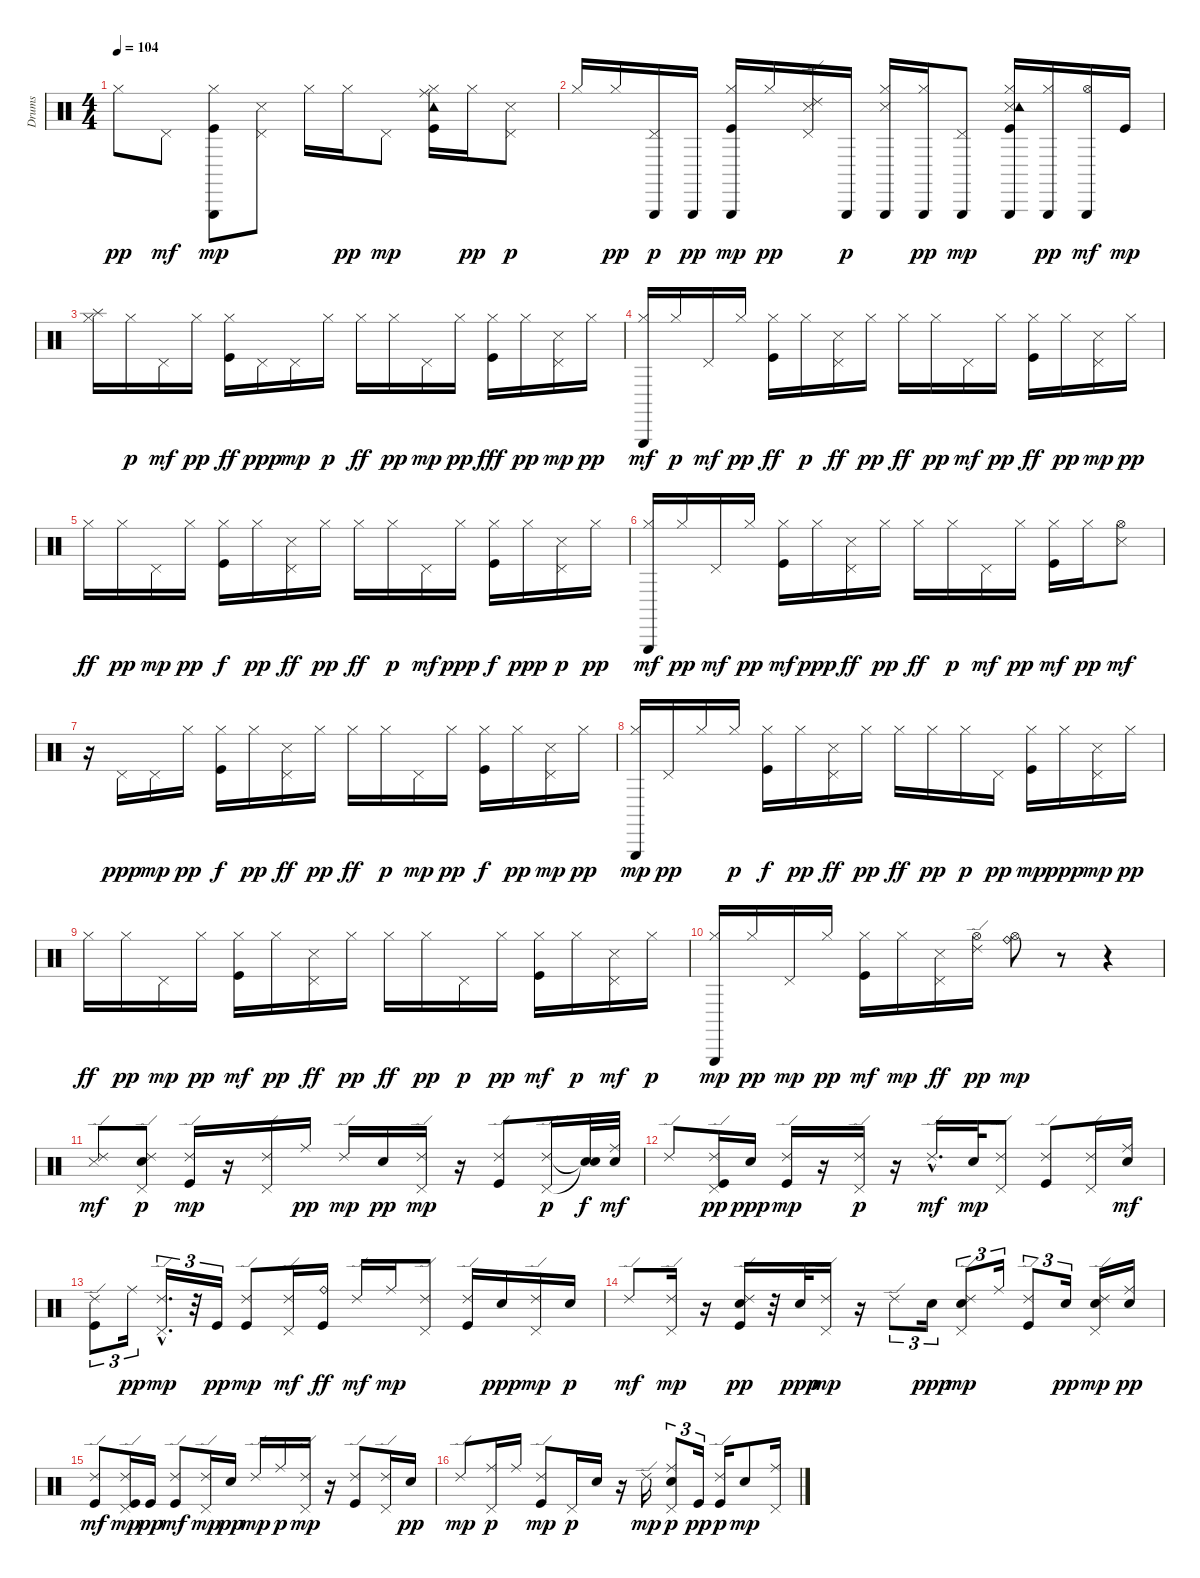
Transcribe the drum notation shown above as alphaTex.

\track ("Drums" "Drums") {instrument percussion}
\staff {score}
\articulation defaults
\ts (4 4)
\tempo 104
\clef neutral
\ks c "Hi-Hat (closed)".8{dy pp} "Pedal Hi-Hat (hit)".8{dy mf}
("Hi-Hat (closed)" "Triangle (hit)" "Kick (hit)").8{dy mp} ("Pedal Hi-Hat (hit)" "Snare (side stick) 3").8 "Hi-Hat (closed)".16 "Hi-Hat (closed)".16{dy pp} "Pedal Hi-Hat (hit)".8{dy mp} ("Hi-Hat (closed)" "Ride (middle)" "Tambourine (hit)" "Kick (hit)").16 "Hi-Hat (closed)".16{dy pp} ("Pedal Hi-Hat (hit)" "Snare (side stick) 3").8{dy p} |
"Hi-Hat (closed)".16 "Hi-Hat (closed)".16{dy pp} ("Pedal Hi-Hat (hit)" "Triangle (hit)").16{dy p} "Triangle (hit)".16{dy pp} ("Hi-Hat (closed)" "Triangle (hit)" "Kick (hit)").16{dy mp} "Hi-Hat (closed)".16{dy pp} ("Pedal Hi-Hat (hit)" "Ride (edge) 2" "Snare (side stick) 3").16 "Triangle (hit)".16{dy p} ("Hi-Hat (closed)" "Snare (side stick) 3" "Triangle (hit)").16 ("Hi-Hat (closed)" "Triangle (hit)").16{dy pp} ("Pedal Hi-Hat (hit)" "Triangle (hit)").8{dy mp} ("Hi-Hat (closed)" "Snare (side stick) 3" "Tambourine (hit)" "Triangle (hit)" "Kick (hit)").16 ("Hi-Hat (closed)" "Triangle (hit)").16{dy pp} ("Hi-Hat (open)" "Triangle (hit)").16{dy mf} "Kick (hit)".16{dy mp} |
("Hi-Hat (closed)" "Splash (hit)").16 "Hi-Hat (closed)".16{dy p} "Pedal Hi-Hat (hit)".16{dy mf} "Hi-Hat (closed)".16{dy pp} ("Hi-Hat (closed)" "Kick (hit)").16{dy ff} "Pedal Hi-Hat (hit)".16{dy ppp} "Pedal Hi-Hat (hit)".16{dy mp} "Hi-Hat (closed)".16{dy p} "Hi-Hat (closed)".16{dy ff} "Hi-Hat (closed)".16{dy pp} "Pedal Hi-Hat (hit)".16{dy mp} "Hi-Hat (closed)".16{dy pp} ("Hi-Hat (closed)" "Kick (hit)").16{dy fff} "Hi-Hat (closed)".16{dy pp} ("Pedal Hi-Hat (hit)" "Snare (side stick) 3").16{dy mp} "Hi-Hat (closed)".16{dy pp} |
("Hi-Hat (closed)" "Triangle (hit)").16{dy mf} "Hi-Hat (closed)".16{dy p} "Pedal Hi-Hat (hit)".16{dy mf} "Hi-Hat (closed)".16{dy pp} ("Hi-Hat (closed)" "Kick (hit)").16{dy ff} "Hi-Hat (closed)".16{dy p} ("Pedal Hi-Hat (hit)" "Snare (side stick) 3").16{dy ff} "Hi-Hat (closed)".16{dy pp} "Hi-Hat (closed)".16{dy ff} "Hi-Hat (closed)".16{dy pp} "Pedal Hi-Hat (hit)".16{dy mf} "Hi-Hat (closed)".16{dy pp} ("Hi-Hat (closed)" "Kick (hit)").16{dy ff} "Hi-Hat (closed)".16{dy pp} ("Pedal Hi-Hat (hit)" "Snare (side stick) 3").16{dy mp} "Hi-Hat (closed)".16{dy pp} |
"Hi-Hat (closed)".16{dy ff} "Hi-Hat (closed)".16{dy pp} "Pedal Hi-Hat (hit)".16{dy mp} "Hi-Hat (closed)".16{dy pp} ("Hi-Hat (closed)" "Kick (hit)").16{dy f} "Hi-Hat (closed)".16{dy pp} ("Pedal Hi-Hat (hit)" "Snare (side stick) 3").16{dy ff} "Hi-Hat (closed)".16{dy pp} "Hi-Hat (closed)".16{dy ff} "Hi-Hat (closed)".16{dy p} "Pedal Hi-Hat (hit)".16{dy mf} "Hi-Hat (closed)".16{dy ppp} ("Hi-Hat (closed)" "Kick (hit)").16{dy f} "Hi-Hat (closed)".16{dy ppp} ("Pedal Hi-Hat (hit)" "Snare (side stick) 3").16{dy p} "Hi-Hat (closed)".16{dy pp} |
("Hi-Hat (closed)" "Triangle (hit)").16{dy mf} "Hi-Hat (closed)".16{dy pp} "Pedal Hi-Hat (hit)".16{dy mf} "Hi-Hat (closed)".16{dy pp} ("Hi-Hat (closed)" "Kick (hit)").16{dy mf} "Hi-Hat (closed)".16{dy ppp} ("Pedal Hi-Hat (hit)" "Snare (side stick) 3").16{dy ff} "Hi-Hat (closed)".16{dy pp} "Hi-Hat (closed)".16{dy ff} "Hi-Hat (closed)".16{dy p} "Pedal Hi-Hat (hit)".16{dy mf} "Hi-Hat (closed)".16{dy pp} ("Hi-Hat (closed)" "Kick (hit)").16{dy mf} "Hi-Hat (closed)".16{dy pp} ("Hi-Hat (open)" "Snare (side stick) 3").8{dy mf} |
r.16 "Pedal Hi-Hat (hit)".16{dy ppp} "Pedal Hi-Hat (hit)".16{dy mp} "Hi-Hat (closed)".16{dy pp} ("Hi-Hat (closed)" "Kick (hit)").16{dy f} "Hi-Hat (closed)".16{dy pp} ("Pedal Hi-Hat (hit)" "Snare (side stick) 3").16{dy ff} "Hi-Hat (closed)".16{dy pp} "Hi-Hat (closed)".16{dy ff} "Hi-Hat (closed)".16{dy p} "Pedal Hi-Hat (hit)".16{dy mp} "Hi-Hat (closed)".16{dy pp} ("Hi-Hat (closed)" "Kick (hit)").16{dy f} "Hi-Hat (closed)".16{dy pp} ("Pedal Hi-Hat (hit)" "Snare (side stick) 3").16{dy mp} "Hi-Hat (closed)".16{dy pp} |
("Hi-Hat (closed)" "Triangle (hit)").16{dy mp} "Pedal Hi-Hat (hit)".16{dy pp} "Hi-Hat (closed)".16 "Hi-Hat (closed)".16{dy p} ("Hi-Hat (closed)" "Kick (hit)").16{dy f} "Hi-Hat (closed)".16{dy pp} ("Pedal Hi-Hat (hit)" "Snare (side stick) 3").16{dy ff} "Hi-Hat (closed)".16{dy pp} "Hi-Hat (closed)".16{dy ff} "Hi-Hat (closed)".16{dy pp} "Hi-Hat (closed)".16{dy p} "Pedal Hi-Hat (hit)".16{dy pp} ("Hi-Hat (closed)" "Kick (hit)").16{dy mp} "Hi-Hat (closed)".16{dy ppp} ("Pedal Hi-Hat (hit)" "Snare (side stick) 3").16{dy mp} "Hi-Hat (closed)".16{dy pp} |
"Hi-Hat (closed)".16{dy ff} "Hi-Hat (closed)".16{dy pp} "Pedal Hi-Hat (hit)".16{dy mp} "Hi-Hat (closed)".16{dy pp} ("Hi-Hat (closed)" "Kick (hit)").16{dy mf} "Hi-Hat (closed)".16{dy pp} ("Pedal Hi-Hat (hit)" "Snare (side stick) 3").16{dy ff} "Hi-Hat (closed)".16{dy pp} "Hi-Hat (closed)".16{dy ff} "Hi-Hat (closed)".16{dy pp} "Pedal Hi-Hat (hit)".16{dy p} "Hi-Hat (closed)".16{dy pp} ("Hi-Hat (closed)" "Kick (hit)").16{dy mf} "Hi-Hat (closed)".16{dy p} ("Pedal Hi-Hat (hit)" "Snare (side stick) 3").16{dy mf} "Hi-Hat (closed)".16{dy p} |
("Hi-Hat (closed)" "Triangle (hit)").16{dy mp} "Hi-Hat (closed)".16{dy pp} "Pedal Hi-Hat (hit)".16{dy mp} "Hi-Hat (closed)".16{dy pp} ("Hi-Hat (closed)" "Kick (hit)").16{dy mf} "Hi-Hat (closed)".16{dy mp} ("Pedal Hi-Hat (hit)" "Snare (side stick) 3").16{dy ff} ("Hi-Hat (open)" "Ride (edge) 2").16{dy pp} ("Hi-Hat (open)" "Ride (bell)").8{dy mp} r.8 r.4 |
("Ride (edge) 2" "Snare (side stick) 3").8{dy mf} ("Pedal Hi-Hat (hit)" "Ride (edge) 2" "Electric Snare (hit)").8{dy p} ("Ride (edge) 2" "Kick (hit)").16{dy mp} r.16 ("Pedal Hi-Hat (hit)" "Ride (edge) 2").16 "Ride (middle)".16{dy pp} "Ride (edge) 2".16{dy mp} "Electric Snare (hit)".16{dy pp} ("Pedal Hi-Hat (hit)" "Ride (edge) 2").16{dy mp} r.16 ("Ride (edge) 2" "Kick (hit)").8 ("Pedal Hi-Hat (hit)" "Ride (edge) 2").16{dy p} ("Snare (hit)"{t} "Snare (hit)"{t}).32{dy f} ("Ride (middle)" "Electric Snare (hit)").32{dy mf} |
"Ride (edge) 2".8 ("Pedal Hi-Hat (hit)" "Ride (edge) 2" "Kick (hit)").16{dy pp} "Electric Snare (hit)".16{dy ppp} ("Ride (edge) 2" "Kick (hit)").16{dy mp} r.16 ("Pedal Hi-Hat (hit)" "Ride (edge) 2").16{dy p} r.16 "Ride (edge) 2"{hac}.16{d dy mf} "Electric Snare (hit)".32{dy mp} ("Pedal Hi-Hat (hit)" "Ride (edge) 2").8 ("Ride (edge) 2" "Kick (hit)").8 ("Pedal Hi-Hat (hit)" "Ride (edge) 2").16 ("Ride (middle)" "Electric Snare (hit)").16{dy mf} |
("Ride (edge) 2" "Kick (hit)").8{tu (3 2)} "Ride (middle)".16{tu (3 2) dy pp} ("Pedal Hi-Hat (hit)"{hac} "Ride (edge) 2"{hac}).16{d tu (3 2) dy mp} r.32{tu (3 2)} "Kick (hit)".16{tu (3 2) dy pp} ("Ride (edge) 2" "Kick (hit)").8{dy mp} ("Pedal Hi-Hat (hit)" "Ride (edge) 2").16{dy mf} ("Ride (bell)" "Kick (hit)").16{dy ff} "Ride (edge) 2".16{dy mf} "Ride (middle)".16{dy mp} ("Pedal Hi-Hat (hit)" "Ride (edge) 2").8 ("Ride (edge) 2" "Kick (hit)").16 "Electric Snare (hit)".16{dy ppp} ("Pedal Hi-Hat (hit)" "Ride (edge) 2").16{dy mp} "Electric Snare (hit)".16{dy p} |
"Ride (edge) 2".8{dy mf} ("Pedal Hi-Hat (hit)" "Ride (edge) 2").16{dy mp} r.16 ("Ride (edge) 2" "Electric Snare (hit)" "Kick (hit)").16{dy pp} r.32 "Electric Snare (hit)".32{dy ppp} ("Pedal Hi-Hat (hit)" "Ride (edge) 2").16{dy mp} r.16 "Ride (edge) 2".8{tu (3 2)} "Electric Snare (hit)".16{tu (3 2) dy ppp} ("Pedal Hi-Hat (hit)" "Ride (edge) 2" "Electric Snare (hit)").8{tu (3 2) dy mp} "Ride (middle)".16{tu (3 2)} ("Ride (edge) 2" "Kick (hit)").8{tu (3 2)} "Electric Snare (hit)".16{tu (3 2) dy pp} ("Pedal Hi-Hat (hit)" "Ride (edge) 2" "Electric Snare (hit)").16{dy mp} ("Ride (middle)" "Electric Snare (hit)").16{dy pp} |
("Ride (edge) 2" "Kick (hit)").8{dy mf} ("Pedal Hi-Hat (hit)" "Ride (edge) 2" "Kick (hit)").16{dy mp} "Kick (hit)".16{dy pp} ("Ride (edge) 2" "Kick (hit)").8{dy mf} ("Pedal Hi-Hat (hit)" "Ride (edge) 2").16{dy mp} "Electric Snare (hit)".16{dy pp} "Ride (edge) 2".16{dy mp} "Ride (middle)".16{dy p} ("Pedal Hi-Hat (hit)" "Ride (edge) 2").16{dy mp} r.16 ("Ride (edge) 2" "Kick (hit)").8 ("Pedal Hi-Hat (hit)" "Ride (edge) 2").16 "Electric Snare (hit)".16{dy pp} |
"Ride (edge) 2".8{dy mp} ("Pedal Hi-Hat (hit)" "Ride (middle)").16{dy p} "Ride (middle)".16 ("Ride (edge) 2" "Kick (hit)").8{dy mp} "Pedal Hi-Hat (hit)".16{dy p} "Electric Snare (hit)".16 r.16 "Ride (edge) 2".16{dy mp} ("Pedal Hi-Hat (hit)" "Ride (middle)" "Electric Snare (hit)").8{tu (3 2) dy p} "Kick (hit)".16{tu (3 2) dy pp} ("Ride (edge) 2" "Kick (hit)").16{dy p} "Electric Snare (hit)".8{dy mp} ("Pedal Hi-Hat (hit)" "Ride (middle)").16
